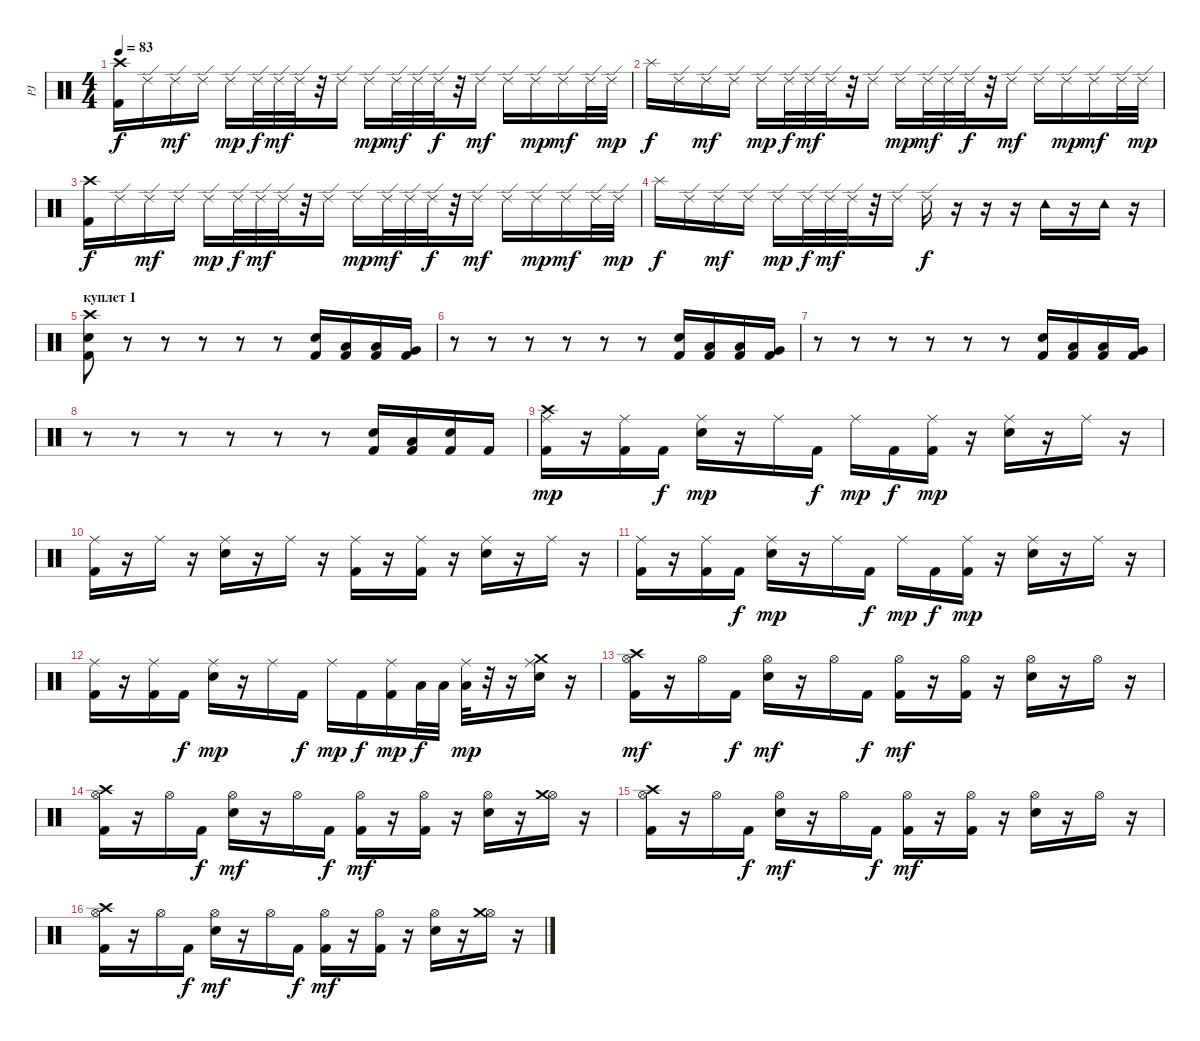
\track ("PJ" "PJ") {instrument percussion}
\staff {score}
\articulation defaults
\ts (4 4)
\tempo 83
\clef neutral
\ks c
("Crash high (hit)" "Kick (hit) 2").16{dy f} "Ride (edge) 2".16 "Ride (edge) 2".16{dy mf} "Ride (edge) 2".16 "Ride (edge) 2".16{dy mp} "Ride (edge) 2".32{dy f} "Ride (edge) 2".32{dy mf} "Ride (edge) 2".32 r.32 "Ride (edge) 2".16 "Ride (edge) 2".16{dy mp} "Ride (edge) 2".32{dy mf} "Ride (edge) 2".32 "Ride (edge) 2".32{dy f} r.32 "Ride (edge) 2".16{dy mf} "Ride (edge) 2".16 "Ride (edge) 2".16{dy mp} "Ride (edge) 2".16{dy mf} "Ride (edge) 2".32 "Ride (edge) 2".32{dy mp} |
"Splash (hit)".16{dy f} "Ride (edge) 2".16 "Ride (edge) 2".16{dy mf} "Ride (edge) 2".16 "Ride (edge) 2".16{dy mp} "Ride (edge) 2".32{dy f} "Ride (edge) 2".32{dy mf} "Ride (edge) 2".32 r.32 "Ride (edge) 2".16 "Ride (edge) 2".16{dy mp} "Ride (edge) 2".32{dy mf} "Ride (edge) 2".32 "Ride (edge) 2".32{dy f} r.32 "Ride (edge) 2".16{dy mf} "Ride (edge) 2".16 "Ride (edge) 2".16{dy mp} "Ride (edge) 2".16{dy mf} "Ride (edge) 2".32 "Ride (edge) 2".32{dy mp} |
("Crash high (hit)" "Kick (hit) 2").16{dy f} "Ride (edge) 2".16 "Ride (edge) 2".16{dy mf} "Ride (edge) 2".16 "Ride (edge) 2".16{dy mp} "Ride (edge) 2".32{dy f} "Ride (edge) 2".32{dy mf} "Ride (edge) 2".32 r.32 "Ride (edge) 2".16 "Ride (edge) 2".16{dy mp} "Ride (edge) 2".32{dy mf} "Ride (edge) 2".32 "Ride (edge) 2".32{dy f} r.32 "Ride (edge) 2".16{dy mf} "Ride (edge) 2".16 "Ride (edge) 2".16{dy mp} "Ride (edge) 2".16{dy mf} "Ride (edge) 2".32 "Ride (edge) 2".32{dy mp} |
"Splash (hit)".16{dy f} "Ride (edge) 2".16 "Ride (edge) 2".16{dy mf} "Ride (edge) 2".16 "Ride (edge) 2".16{dy mp} "Ride (edge) 2".32{dy f} "Ride (edge) 2".32{dy mf} "Ride (edge) 2".32 r.32 "Ride (edge) 2".16 "Ride (edge) 2".16{dy f} r.16 r.16 r.16 "Tambourine (hit)".16 r.16 "Tambourine (hit)".16 r.16 |
\section ("" "куплет 1")
("Crash high (hit)" "Electric Snare (hit)" "Kick (hit) 2").8 r.8 r.8 r.8 r.8 r.8 ("Electric Snare (hit)" "Kick (hit) 2").16 ("Low Tom (hit)" "Kick (hit) 2").16 ("Low Tom (hit)" "Kick (hit) 2").16 ("Very Low Tom (hit)" "Kick (hit) 2").16 |
r.8 r.8 r.8 r.8 r.8 r.8 ("Electric Snare (hit)" "Kick (hit) 2").16 ("Low Tom (hit)" "Kick (hit) 2").16 ("Low Tom (hit)" "Kick (hit) 2").16 ("Very Low Tom (hit)" "Kick (hit) 2").16 |
r.8 r.8 r.8 r.8 r.8 r.8 ("Electric Snare (hit)" "Kick (hit) 2").16 ("Low Tom (hit)" "Kick (hit) 2").16 ("Low Tom (hit)" "Kick (hit) 2").16 ("Very Low Tom (hit)" "Kick (hit) 2").16 |
r.8 r.8 r.8 r.8 r.8 r.8 ("Electric Snare (hit)" "Kick (hit) 2").16 ("Low Tom (hit)" "Kick (hit) 2").16 ("Electric Snare (hit)" "Kick (hit) 2").16 "Kick (hit) 2".16 |
("Ride (middle)" "Crash high (hit)" "Kick (hit) 2").16{dy mp} r.16 ("Ride (middle)" "Kick (hit) 2").16 "Kick (hit) 2".16{dy f} ("Ride (middle)" "Electric Snare (hit)").16{dy mp} r.16 "Ride (middle)".16 "Kick (hit) 2".16{dy f} "Ride (middle)".16{dy mp} "Kick (hit) 2".16{dy f} ("Ride (middle)" "Kick (hit) 2").16{dy mp} r.16 ("Ride (middle)" "Electric Snare (hit)").16 r.16 "Ride (middle)".16 r.16 |
("Ride (middle)" "Kick (hit) 2").16 r.16 "Ride (middle)".16 r.16 ("Ride (middle)" "Electric Snare (hit)").16 r.16 "Ride (middle)".16 r.16 ("Ride (middle)" "Kick (hit) 2").16 r.16 ("Ride (middle)" "Kick (hit) 2").16 r.16 ("Ride (middle)" "Electric Snare (hit)").16 r.16 "Ride (middle)".16 r.16 |
("Ride (middle)" "Kick (hit) 2").16 r.16 ("Ride (middle)" "Kick (hit) 2").16 "Kick (hit) 2".16{dy f} ("Ride (middle)" "Electric Snare (hit)").16{dy mp} r.16 "Ride (middle)".16 "Kick (hit) 2".16{dy f} "Ride (middle)".16{dy mp} "Kick (hit) 2".16{dy f} ("Ride (middle)" "Kick (hit) 2").16{dy mp} r.16 ("Ride (middle)" "Electric Snare (hit)").16 r.16 "Ride (middle)".16 r.16 |
("Ride (middle)" "Kick (hit) 2").16 r.16 ("Ride (middle)" "Kick (hit) 2").16 "Kick (hit) 2".16{dy f} ("Ride (middle)" "Electric Snare (hit)").16{dy mp} r.16 "Ride (middle)".16 "Kick (hit) 2".16{dy f} "Ride (middle)".16{dy mp} "Kick (hit) 2".16{dy f} ("Ride (middle)" "Kick (hit) 2").16{dy mp} "Low Tom (hit)".32{dy f} "Low Tom (hit)".32 ("Ride (middle)" "Low Tom (hit)").32{dy mp} r.32 r.16 ("Ride (middle)" "Crash medium (hit)" "Electric Snare (hit)").16 r.16 |
("Hi-Hat (open)" "Crash high (hit)" "Kick (hit) 2").16{dy mf} r.16 "Hi-Hat (open)".16 "Kick (hit) 2".16{dy f} ("Hi-Hat (open)" "Electric Snare (hit)").16{dy mf} r.16 "Hi-Hat (open)".16 "Kick (hit) 2".16{dy f} ("Hi-Hat (open)" "Kick (hit) 2").16{dy mf} r.16 ("Hi-Hat (open)" "Kick (hit) 2").16 r.16 ("Hi-Hat (open)" "Electric Snare (hit)").16 r.16 "Hi-Hat (open)".16 r.16 |
("Hi-Hat (open)" "Crash high (hit)" "Kick (hit) 2").16 r.16 "Hi-Hat (open)".16 "Kick (hit) 2".16{dy f} ("Hi-Hat (open)" "Electric Snare (hit)").16{dy mf} r.16 "Hi-Hat (open)".16 "Kick (hit) 2".16{dy f} ("Hi-Hat (open)" "Kick (hit) 2").16{dy mf} r.16 ("Hi-Hat (open)" "Kick (hit) 2").16 r.16 ("Hi-Hat (open)" "Electric Snare (hit)").16 r.16 ("Hi-Hat (open)" "Crash medium (hit)").16 r.16 |
("Hi-Hat (open)" "Crash high (hit)" "Kick (hit) 2").16 r.16 "Hi-Hat (open)".16 "Kick (hit) 2".16{dy f} ("Hi-Hat (open)" "Electric Snare (hit)").16{dy mf} r.16 "Hi-Hat (open)".16 "Kick (hit) 2".16{dy f} ("Hi-Hat (open)" "Kick (hit) 2").16{dy mf} r.16 ("Hi-Hat (open)" "Kick (hit) 2").16 r.16 ("Hi-Hat (open)" "Electric Snare (hit)").16 r.16 "Hi-Hat (open)".16 r.16 |
("Hi-Hat (open)" "Crash high (hit)" "Kick (hit) 2").16 r.16 "Hi-Hat (open)".16 "Kick (hit) 2".16{dy f} ("Hi-Hat (open)" "Electric Snare (hit)").16{dy mf} r.16 "Hi-Hat (open)".16 "Kick (hit) 2".16{dy f} ("Hi-Hat (open)" "Kick (hit) 2").16{dy mf} r.16 ("Hi-Hat (open)" "Kick (hit) 2").16 r.16 ("Hi-Hat (open)" "Electric Snare (hit)").16 r.16 ("Hi-Hat (open)" "Crash medium (hit)").16 r.16
